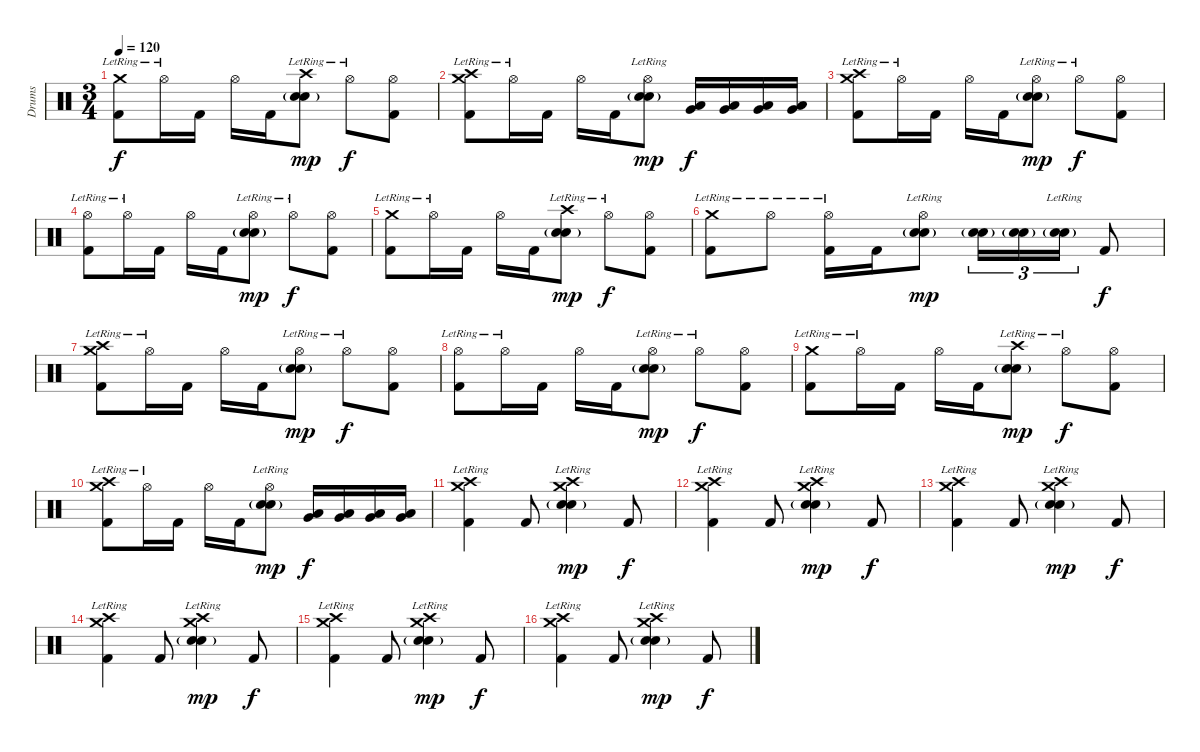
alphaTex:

\track ("Drums" "Drums") {instrument percussion}
\staff {score}
\articulation defaults
\ts (3 4)
\tempo 120
\clef neutral
\ks c
("Crash medium (hit)"{lr} "Kick (hit) 2").8{dy f} "Hi-Hat (open)"{lr}.16 "Kick (hit) 2".16 "Hi-Hat (open)".16 "Kick (hit) 2".16 ("Crash high (hit)"{lr} "Electric Snare (hit)"{g} "Snare (hit) 2"{lr}).8{dy mp} "Hi-Hat (open)"{lr}.8{dy f} ("Hi-Hat (open)" "Kick (hit) 2").8 |
("Crash high (hit)"{lr} "Crash medium (hit)"{lr} "Kick (hit) 2").8 "Hi-Hat (open)"{lr}.16 "Kick (hit) 2".16 "Hi-Hat (open)".16 "Kick (hit) 2".16 ("Hi-Hat (open)"{lr} "Electric Snare (hit)"{g} "Snare (hit) 2"{lr}).8{dy mp} ("Low Tom (hit)" "Very Low Tom (hit)").16{dy f} ("Low Tom (hit)" "Very Low Tom (hit)").16 ("Low Tom (hit)" "Very Low Tom (hit)").16 ("Low Tom (hit)" "Very Low Tom (hit)").16 |
("Crash high (hit)"{lr} "Crash medium (hit)"{lr} "Kick (hit) 2").8 "Hi-Hat (open)"{lr}.16 "Kick (hit) 2".16 "Hi-Hat (open)".16 "Kick (hit) 2".16 ("Hi-Hat (open)"{lr} "Electric Snare (hit)"{g} "Snare (hit) 2"{lr}).8{dy mp} "Hi-Hat (open)"{lr}.8{dy f} ("Hi-Hat (open)" "Kick (hit) 2").8 |
("Hi-Hat (open)"{lr} "Kick (hit) 2").8 "Hi-Hat (open)"{lr}.16 "Kick (hit) 2".16 "Hi-Hat (open)".16 "Kick (hit) 2".16 ("Hi-Hat (open)"{lr} "Electric Snare (hit)"{g} "Snare (hit) 2"{lr}).8{dy mp} "Hi-Hat (open)"{lr}.8{dy f} ("Hi-Hat (open)" "Kick (hit) 2").8 |
("Crash medium (hit)"{lr} "Kick (hit) 2").8 "Hi-Hat (open)"{lr}.16 "Kick (hit) 2".16 "Hi-Hat (open)".16 "Kick (hit) 2".16 ("Crash high (hit)"{lr} "Electric Snare (hit)"{g} "Snare (hit) 2"{lr}).8{dy mp} "Hi-Hat (open)"{lr}.8{dy f} ("Hi-Hat (open)" "Kick (hit) 2").8 |
("Crash medium (hit)"{lr} "Kick (hit) 2").8 "Hi-Hat (open)"{lr}.8 ("Hi-Hat (open)"{lr} "Kick (hit) 2").16 "Kick (hit) 2".16 ("Hi-Hat (open)"{lr} "Electric Snare (hit)"{g} "Snare (hit) 2"{lr}).8{dy mp} ("Electric Snare (hit)"{g} "Snare (hit) 2").16{tu (3 2)} ("Electric Snare (hit)"{g} "Snare (hit) 2").16{tu (3 2)} ("Electric Snare (hit)"{g} "Snare (hit) 2"{lr}).16{tu (3 2)} "Kick (hit) 2".8{dy f} |
("Crash high (hit)"{lr} "Crash medium (hit)"{lr} "Kick (hit) 2").8 "Hi-Hat (open)"{lr}.16 "Kick (hit) 2".16 "Hi-Hat (open)".16 "Kick (hit) 2".16 ("Hi-Hat (open)"{lr} "Electric Snare (hit)"{g} "Snare (hit) 2"{lr}).8{dy mp} "Hi-Hat (open)"{lr}.8{dy f} ("Hi-Hat (open)" "Kick (hit) 2").8 |
("Hi-Hat (open)"{lr} "Kick (hit) 2").8 "Hi-Hat (open)"{lr}.16 "Kick (hit) 2".16 "Hi-Hat (open)".16 "Kick (hit) 2".16 ("Hi-Hat (open)"{lr} "Electric Snare (hit)"{g} "Snare (hit) 2"{lr}).8{dy mp} "Hi-Hat (open)"{lr}.8{dy f} ("Hi-Hat (open)" "Kick (hit) 2").8 |
("Crash medium (hit)"{lr} "Kick (hit) 2").8 "Hi-Hat (open)"{lr}.16 "Kick (hit) 2".16 "Hi-Hat (open)".16 "Kick (hit) 2".16 ("Crash high (hit)"{lr} "Electric Snare (hit)"{g} "Snare (hit) 2"{lr}).8{dy mp} "Hi-Hat (open)"{lr}.8{dy f} ("Hi-Hat (open)" "Kick (hit) 2").8 |
("Crash high (hit)"{lr} "Crash medium (hit)"{lr} "Kick (hit) 2").8 "Hi-Hat (open)"{lr}.16 "Kick (hit) 2".16 "Hi-Hat (open)".16 "Kick (hit) 2".16 ("Hi-Hat (open)"{lr} "Electric Snare (hit)"{g} "Snare (hit) 2"{lr}).8{dy mp} ("Low Tom (hit)" "Very Low Tom (hit)").16{dy f} ("Low Tom (hit)" "Very Low Tom (hit)").16 ("Low Tom (hit)" "Very Low Tom (hit)").16 ("Low Tom (hit)" "Very Low Tom (hit)").16 |
("Crash high (hit)"{lr} "Crash medium (hit)"{lr} "Kick (hit) 2").4 "Kick (hit) 2".8 ("Crash high (hit)"{lr} "Crash medium (hit)"{lr} "Electric Snare (hit)"{g} "Snare (hit) 2"{lr}).4{dy mp} "Kick (hit) 2".8{dy f} |
("Crash high (hit)"{lr} "Crash medium (hit)"{lr} "Kick (hit) 2").4 "Kick (hit) 2".8 ("Crash high (hit)"{lr} "Crash medium (hit)"{lr} "Electric Snare (hit)"{g} "Snare (hit) 2"{lr}).4{dy mp} "Kick (hit) 2".8{dy f} |
("Crash high (hit)"{lr} "Crash medium (hit)"{lr} "Kick (hit) 2").4 "Kick (hit) 2".8 ("Crash high (hit)"{lr} "Crash medium (hit)"{lr} "Electric Snare (hit)"{g} "Snare (hit) 2"{lr}).4{dy mp} "Kick (hit) 2".8{dy f} |
("Crash high (hit)"{lr} "Crash medium (hit)"{lr} "Kick (hit) 2").4 "Kick (hit) 2".8 ("Crash high (hit)"{lr} "Crash medium (hit)"{lr} "Electric Snare (hit)"{g} "Snare (hit) 2"{lr}).4{dy mp} "Kick (hit) 2".8{dy f} |
("Crash high (hit)"{lr} "Crash medium (hit)"{lr} "Kick (hit) 2").4 "Kick (hit) 2".8 ("Crash high (hit)"{lr} "Crash medium (hit)"{lr} "Electric Snare (hit)"{g} "Snare (hit) 2"{lr}).4{dy mp} "Kick (hit) 2".8{dy f} |
("Crash high (hit)"{lr} "Crash medium (hit)"{lr} "Kick (hit) 2").4 "Kick (hit) 2".8 ("Crash high (hit)"{lr} "Crash medium (hit)"{lr} "Electric Snare (hit)"{g} "Snare (hit) 2"{lr}).4{dy mp} "Kick (hit) 2".8{dy f}
